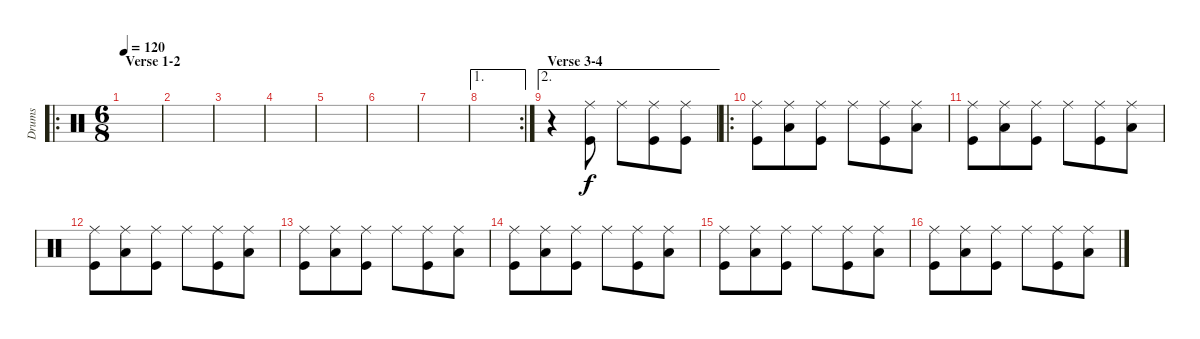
\track ("Drums" "Drums") {instrument percussion}
\staff {score}
\articulation defaults
\ro
\ts (6 8)
\section ("" "Verse 1-2")
\tempo 120
\clef neutral
\ks c
|
|
|
|
|
|
|
\ae 1
\rc 2
|
\ae 2
\section ("" "Verse 3-4")
r.4 ("Ride (middle)" "Kick (hit)").8 "Ride (middle)".8 ("Ride (middle)" "Kick (hit)").8 ("Ride (middle)" "Kick (hit)").8 |
\ro
("Ride (middle)" "Kick (hit)").8 ("Ride (middle)" "Low Tom (hit)").8 ("Ride (middle)" "Kick (hit)").8 "Ride (middle)".8 ("Ride (middle)" "Kick (hit)").8 ("Ride (middle)" "Low Tom (hit)").8 |
("Ride (middle)" "Kick (hit)").8 ("Ride (middle)" "Low Tom (hit)").8 ("Ride (middle)" "Kick (hit)").8 "Ride (middle)".8 ("Ride (middle)" "Kick (hit)").8 ("Ride (middle)" "Low Tom (hit)").8 |
("Ride (middle)" "Kick (hit)").8 ("Ride (middle)" "Low Tom (hit)").8 ("Ride (middle)" "Kick (hit)").8 "Ride (middle)".8 ("Ride (middle)" "Kick (hit)").8 ("Ride (middle)" "Low Tom (hit)").8 |
("Ride (middle)" "Kick (hit)").8 ("Ride (middle)" "Low Tom (hit)").8 ("Ride (middle)" "Kick (hit)").8 "Ride (middle)".8 ("Ride (middle)" "Kick (hit)").8 ("Ride (middle)" "Low Tom (hit)").8 |
("Ride (middle)" "Kick (hit)").8 ("Ride (middle)" "Low Tom (hit)").8 ("Ride (middle)" "Kick (hit)").8 "Ride (middle)".8 ("Ride (middle)" "Kick (hit)").8 ("Ride (middle)" "Low Tom (hit)").8 |
("Ride (middle)" "Kick (hit)").8 ("Ride (middle)" "Low Tom (hit)").8 ("Ride (middle)" "Kick (hit)").8 "Ride (middle)".8 ("Ride (middle)" "Kick (hit)").8 ("Ride (middle)" "Low Tom (hit)").8 |
("Ride (middle)" "Kick (hit)").8 ("Ride (middle)" "Low Tom (hit)").8 ("Ride (middle)" "Kick (hit)").8 "Ride (middle)".8 ("Ride (middle)" "Kick (hit)").8 ("Ride (middle)" "Low Tom (hit)").8
